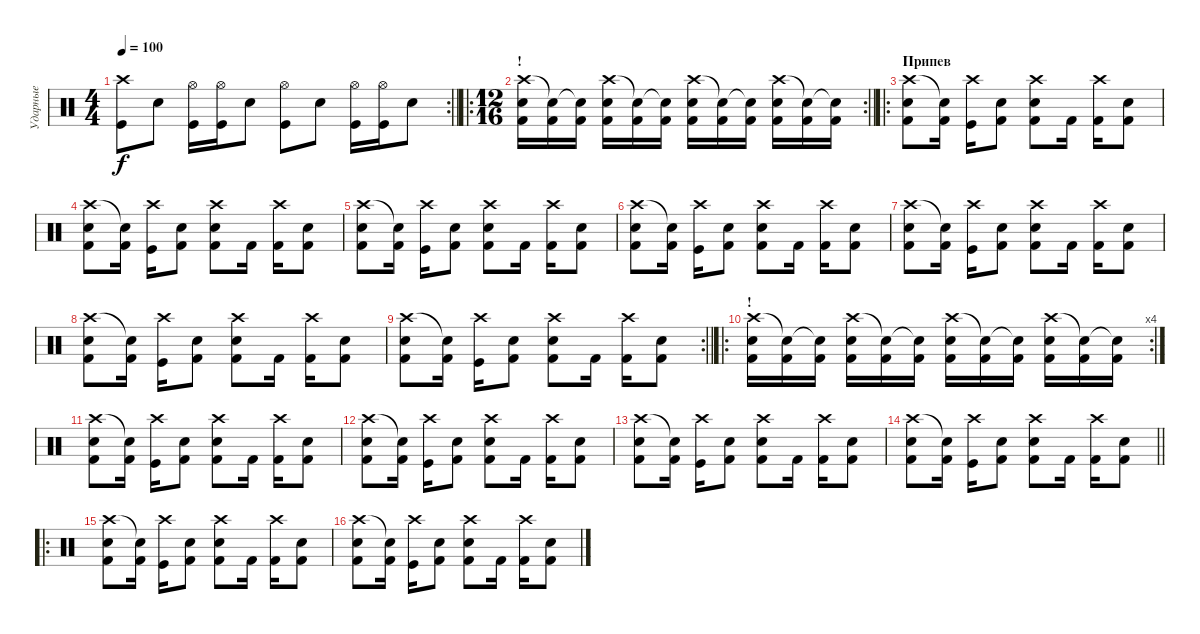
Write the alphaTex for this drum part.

\track ("Ударные" "Ударные") {instrument percussion}
\staff {score}
\articulation defaults
\rc 2
\ts (4 4)
\tempo 100
\clef neutral
\barLineRight lightlight
\ks c
("Crash high (hit)" "Kick (hit)").8{dy f} "Electric Snare (hit)".8 ("Hi-Hat (open)" "Kick (hit)").16 ("Hi-Hat (open)" "Kick (hit)").16 "Electric Snare (hit)".8 ("Hi-Hat (open)" "Kick (hit)").8 "Electric Snare (hit)".8 ("Hi-Hat (open)" "Kick (hit)").16 ("Hi-Hat (open)" "Kick (hit)").16 "Electric Snare (hit)".8 |
\ro
\rc 2
\ts (12 16)
\section ("" "!")
\barLineRight lightlight
("Crash high (hit)" "Electric Snare (hit)" "Kick (hit) 2").16 ("Snare (hit)"{t} "Kick (hit) 2").16 ("Snare (hit)"{t} "Kick (hit) 2").16 ("Crash high (hit)" "Electric Snare (hit)" "Kick (hit) 2").16 ("Snare (hit)"{t} "Kick (hit) 2").16 ("Snare (hit)"{t} "Kick (hit) 2").16 ("Crash high (hit)" "Electric Snare (hit)" "Kick (hit) 2").16 ("Snare (hit)"{t} "Kick (hit) 2").16 ("Snare (hit)"{t} "Kick (hit) 2").16 ("Crash high (hit)" "Electric Snare (hit)" "Kick (hit) 2").16 ("Snare (hit)"{t} "Kick (hit) 2").16 ("Snare (hit)"{t} "Kick (hit) 2").16 |
\ro
\section ("" "Припев")
("Crash high (hit)" "Electric Snare (hit)" "Kick (hit) 2").8 ("Snare (hit)"{t} "Kick (hit) 2").16 ("Crash high (hit)" "Kick (hit)").16 ("Electric Snare (hit)" "Kick (hit) 2").8 ("Crash high (hit)" "Electric Snare (hit)" "Kick (hit) 2").8 "Kick (hit) 2".16 ("Crash high (hit)" "Kick (hit) 2").16 ("Electric Snare (hit)" "Kick (hit) 2").8 |
("Crash high (hit)" "Electric Snare (hit)" "Kick (hit) 2").8 ("Snare (hit)"{t} "Kick (hit) 2").16 ("Crash high (hit)" "Kick (hit)").16 ("Electric Snare (hit)" "Kick (hit) 2").8 ("Crash high (hit)" "Electric Snare (hit)" "Kick (hit) 2").8 "Kick (hit) 2".16 ("Crash high (hit)" "Kick (hit) 2").16 ("Electric Snare (hit)" "Kick (hit) 2").8 |
("Crash high (hit)" "Electric Snare (hit)" "Kick (hit) 2").8 ("Snare (hit)"{t} "Kick (hit) 2").16 ("Crash high (hit)" "Kick (hit)").16 ("Electric Snare (hit)" "Kick (hit) 2").8 ("Crash high (hit)" "Electric Snare (hit)" "Kick (hit) 2").8 "Kick (hit) 2".16 ("Crash high (hit)" "Kick (hit) 2").16 ("Electric Snare (hit)" "Kick (hit) 2").8 |
("Crash high (hit)" "Electric Snare (hit)" "Kick (hit) 2").8 ("Snare (hit)"{t} "Kick (hit) 2").16 ("Crash high (hit)" "Kick (hit)").16 ("Electric Snare (hit)" "Kick (hit) 2").8 ("Crash high (hit)" "Electric Snare (hit)" "Kick (hit) 2").8 "Kick (hit) 2".16 ("Crash high (hit)" "Kick (hit) 2").16 ("Electric Snare (hit)" "Kick (hit) 2").8 |
("Crash high (hit)" "Electric Snare (hit)" "Kick (hit) 2").8 ("Snare (hit)"{t} "Kick (hit) 2").16 ("Crash high (hit)" "Kick (hit)").16 ("Electric Snare (hit)" "Kick (hit) 2").8 ("Crash high (hit)" "Electric Snare (hit)" "Kick (hit) 2").8 "Kick (hit) 2".16 ("Crash high (hit)" "Kick (hit) 2").16 ("Electric Snare (hit)" "Kick (hit) 2").8 |
("Crash high (hit)" "Electric Snare (hit)" "Kick (hit) 2").8 ("Snare (hit)"{t} "Kick (hit) 2").16 ("Crash high (hit)" "Kick (hit)").16 ("Electric Snare (hit)" "Kick (hit) 2").8 ("Crash high (hit)" "Electric Snare (hit)" "Kick (hit) 2").8 "Kick (hit) 2".16 ("Crash high (hit)" "Kick (hit) 2").16 ("Electric Snare (hit)" "Kick (hit) 2").8 |
\rc 2
\barLineRight lightlight
("Crash high (hit)" "Electric Snare (hit)" "Kick (hit) 2").8 ("Snare (hit)"{t} "Kick (hit) 2").16 ("Crash high (hit)" "Kick (hit)").16 ("Electric Snare (hit)" "Kick (hit) 2").8 ("Crash high (hit)" "Electric Snare (hit)" "Kick (hit) 2").8 "Kick (hit) 2".16 ("Crash high (hit)" "Kick (hit) 2").16 ("Electric Snare (hit)" "Kick (hit) 2").8 |
\ro
\rc 4
\section ("" "!")
("Crash high (hit)" "Electric Snare (hit)" "Kick (hit) 2").16 ("Snare (hit)"{t} "Kick (hit) 2").16 ("Snare (hit)"{t} "Kick (hit) 2").16 ("Crash high (hit)" "Electric Snare (hit)" "Kick (hit) 2").16 ("Snare (hit)"{t} "Kick (hit) 2").16 ("Snare (hit)"{t} "Kick (hit) 2").16 ("Crash high (hit)" "Electric Snare (hit)" "Kick (hit) 2").16 ("Snare (hit)"{t} "Kick (hit) 2").16 ("Snare (hit)"{t} "Kick (hit) 2").16 ("Crash high (hit)" "Electric Snare (hit)" "Kick (hit) 2").16 ("Snare (hit)"{t} "Kick (hit) 2").16 ("Snare (hit)"{t} "Kick (hit) 2").16 |
("Crash high (hit)" "Electric Snare (hit)" "Kick (hit) 2").8 ("Snare (hit)"{t} "Kick (hit) 2").16 ("Crash high (hit)" "Kick (hit)").16 ("Electric Snare (hit)" "Kick (hit) 2").8 ("Crash high (hit)" "Electric Snare (hit)" "Kick (hit) 2").8 "Kick (hit) 2".16 ("Crash high (hit)" "Kick (hit) 2").16 ("Electric Snare (hit)" "Kick (hit) 2").8 |
("Crash high (hit)" "Electric Snare (hit)" "Kick (hit) 2").8 ("Snare (hit)"{t} "Kick (hit) 2").16 ("Crash high (hit)" "Kick (hit)").16 ("Electric Snare (hit)" "Kick (hit) 2").8 ("Crash high (hit)" "Electric Snare (hit)" "Kick (hit) 2").8 "Kick (hit) 2".16 ("Crash high (hit)" "Kick (hit) 2").16 ("Electric Snare (hit)" "Kick (hit) 2").8 |
("Crash high (hit)" "Electric Snare (hit)" "Kick (hit) 2").8 ("Snare (hit)"{t} "Kick (hit) 2").16 ("Crash high (hit)" "Kick (hit)").16 ("Electric Snare (hit)" "Kick (hit) 2").8 ("Crash high (hit)" "Electric Snare (hit)" "Kick (hit) 2").8 "Kick (hit) 2".16 ("Crash high (hit)" "Kick (hit) 2").16 ("Electric Snare (hit)" "Kick (hit) 2").8 |
\barLineRight lightlight
("Crash high (hit)" "Electric Snare (hit)" "Kick (hit) 2").8 ("Snare (hit)"{t} "Kick (hit) 2").16 ("Crash high (hit)" "Kick (hit)").16 ("Electric Snare (hit)" "Kick (hit) 2").8 ("Crash high (hit)" "Electric Snare (hit)" "Kick (hit) 2").8 "Kick (hit) 2".16 ("Crash high (hit)" "Kick (hit) 2").16 ("Electric Snare (hit)" "Kick (hit) 2").8 |
\ro
("Crash high (hit)" "Electric Snare (hit)" "Kick (hit) 2").8 ("Snare (hit)"{t} "Kick (hit) 2").16 ("Crash high (hit)" "Kick (hit)").16 ("Electric Snare (hit)" "Kick (hit) 2").8 ("Crash high (hit)" "Electric Snare (hit)" "Kick (hit) 2").8 "Kick (hit) 2".16 ("Crash high (hit)" "Kick (hit) 2").16 ("Electric Snare (hit)" "Kick (hit) 2").8 |
("Crash high (hit)" "Electric Snare (hit)" "Kick (hit) 2").8 ("Snare (hit)"{t} "Kick (hit) 2").16 ("Crash high (hit)" "Kick (hit)").16 ("Electric Snare (hit)" "Kick (hit) 2").8 ("Crash high (hit)" "Electric Snare (hit)" "Kick (hit) 2").8 "Kick (hit) 2".16 ("Crash high (hit)" "Kick (hit) 2").16 ("Electric Snare (hit)" "Kick (hit) 2").8
